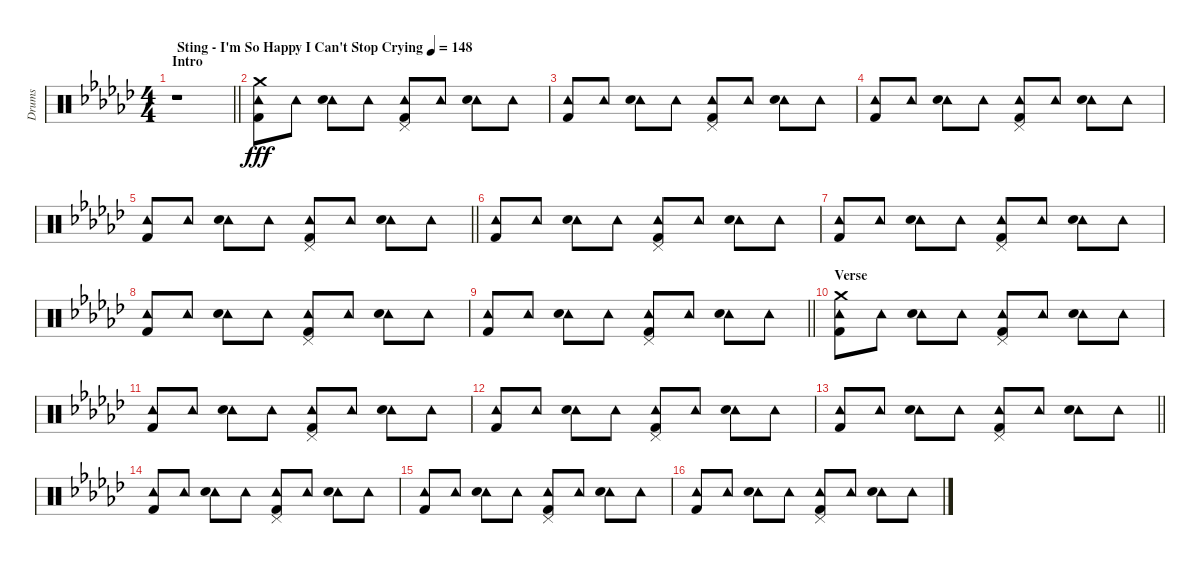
\track ("Drums" "Drums") {instrument percussion}
\staff {score}
\articulation defaults
\ts (4 4)
\section ("" "Intro")
\tempo (148 "Sting - I'm So Happy I Can't Stop Crying")
\clef neutral
\barLineRight lightlight
\ks gb
r.1{dy fff} |
("Crash medium (hit)" "Tambourine (hit)" "Kick (hit) 2").8 "Tambourine (hit)".8 ("Tambourine (hit)" "Electric Snare (hit)").8 "Tambourine (hit)".8 ("Pedal Hi-Hat (hit)" "Tambourine (hit)" "Kick (hit) 2").8 "Tambourine (hit)".8 ("Tambourine (hit)" "Electric Snare (hit)").8 "Tambourine (hit)".8 |
("Tambourine (hit)" "Kick (hit) 2").8 "Tambourine (hit)".8 ("Tambourine (hit)" "Electric Snare (hit)").8 "Tambourine (hit)".8 ("Pedal Hi-Hat (hit)" "Tambourine (hit)" "Kick (hit) 2").8 "Tambourine (hit)".8 ("Tambourine (hit)" "Electric Snare (hit)").8 "Tambourine (hit)".8 |
("Tambourine (hit)" "Kick (hit) 2").8 "Tambourine (hit)".8 ("Tambourine (hit)" "Electric Snare (hit)").8 "Tambourine (hit)".8 ("Pedal Hi-Hat (hit)" "Tambourine (hit)" "Kick (hit) 2").8 "Tambourine (hit)".8 ("Tambourine (hit)" "Electric Snare (hit)").8 "Tambourine (hit)".8 |
\barLineRight lightlight
("Tambourine (hit)" "Kick (hit) 2").8 "Tambourine (hit)".8 ("Tambourine (hit)" "Electric Snare (hit)").8 "Tambourine (hit)".8 ("Pedal Hi-Hat (hit)" "Tambourine (hit)" "Kick (hit) 2").8 "Tambourine (hit)".8 ("Tambourine (hit)" "Electric Snare (hit)").8 "Tambourine (hit)".8 |
("Tambourine (hit)" "Kick (hit) 2").8 "Tambourine (hit)".8 ("Tambourine (hit)" "Electric Snare (hit)").8 "Tambourine (hit)".8 ("Pedal Hi-Hat (hit)" "Tambourine (hit)" "Kick (hit) 2").8 "Tambourine (hit)".8 ("Tambourine (hit)" "Electric Snare (hit)").8 "Tambourine (hit)".8 |
("Tambourine (hit)" "Kick (hit) 2").8 "Tambourine (hit)".8 ("Tambourine (hit)" "Electric Snare (hit)").8 "Tambourine (hit)".8 ("Pedal Hi-Hat (hit)" "Tambourine (hit)" "Kick (hit) 2").8 "Tambourine (hit)".8 ("Tambourine (hit)" "Electric Snare (hit)").8 "Tambourine (hit)".8 |
("Tambourine (hit)" "Kick (hit) 2").8 "Tambourine (hit)".8 ("Tambourine (hit)" "Electric Snare (hit)").8 "Tambourine (hit)".8 ("Pedal Hi-Hat (hit)" "Tambourine (hit)" "Kick (hit) 2").8 "Tambourine (hit)".8 ("Tambourine (hit)" "Electric Snare (hit)").8 "Tambourine (hit)".8 |
\barLineRight lightlight
("Tambourine (hit)" "Kick (hit) 2").8 "Tambourine (hit)".8 ("Tambourine (hit)" "Electric Snare (hit)").8 "Tambourine (hit)".8 ("Pedal Hi-Hat (hit)" "Tambourine (hit)" "Kick (hit) 2").8 "Tambourine (hit)".8 ("Tambourine (hit)" "Electric Snare (hit)").8 "Tambourine (hit)".8 |
\section ("" "Verse")
("Crash medium (hit)" "Tambourine (hit)" "Kick (hit) 2").8 "Tambourine (hit)".8 ("Tambourine (hit)" "Electric Snare (hit)").8 "Tambourine (hit)".8 ("Pedal Hi-Hat (hit)" "Tambourine (hit)" "Kick (hit) 2").8 "Tambourine (hit)".8 ("Tambourine (hit)" "Electric Snare (hit)").8 "Tambourine (hit)".8 |
("Tambourine (hit)" "Kick (hit) 2").8 "Tambourine (hit)".8 ("Tambourine (hit)" "Electric Snare (hit)").8 "Tambourine (hit)".8 ("Pedal Hi-Hat (hit)" "Tambourine (hit)" "Kick (hit) 2").8 "Tambourine (hit)".8 ("Tambourine (hit)" "Electric Snare (hit)").8 "Tambourine (hit)".8 |
("Tambourine (hit)" "Kick (hit) 2").8 "Tambourine (hit)".8 ("Tambourine (hit)" "Electric Snare (hit)").8 "Tambourine (hit)".8 ("Pedal Hi-Hat (hit)" "Tambourine (hit)" "Kick (hit) 2").8 "Tambourine (hit)".8 ("Tambourine (hit)" "Electric Snare (hit)").8 "Tambourine (hit)".8 |
\barLineRight lightlight
("Tambourine (hit)" "Kick (hit) 2").8 "Tambourine (hit)".8 ("Tambourine (hit)" "Electric Snare (hit)").8 "Tambourine (hit)".8 ("Pedal Hi-Hat (hit)" "Tambourine (hit)" "Kick (hit) 2").8 "Tambourine (hit)".8 ("Tambourine (hit)" "Electric Snare (hit)").8 "Tambourine (hit)".8 |
("Tambourine (hit)" "Kick (hit) 2").8 "Tambourine (hit)".8 ("Tambourine (hit)" "Electric Snare (hit)").8 "Tambourine (hit)".8 ("Pedal Hi-Hat (hit)" "Tambourine (hit)" "Kick (hit) 2").8 "Tambourine (hit)".8 ("Tambourine (hit)" "Electric Snare (hit)").8 "Tambourine (hit)".8 |
("Tambourine (hit)" "Kick (hit) 2").8 "Tambourine (hit)".8 ("Tambourine (hit)" "Electric Snare (hit)").8 "Tambourine (hit)".8 ("Pedal Hi-Hat (hit)" "Tambourine (hit)" "Kick (hit) 2").8 "Tambourine (hit)".8 ("Tambourine (hit)" "Electric Snare (hit)").8 "Tambourine (hit)".8 |
("Tambourine (hit)" "Kick (hit) 2").8 "Tambourine (hit)".8 ("Tambourine (hit)" "Electric Snare (hit)").8 "Tambourine (hit)".8 ("Pedal Hi-Hat (hit)" "Tambourine (hit)" "Kick (hit) 2").8 "Tambourine (hit)".8 ("Tambourine (hit)" "Electric Snare (hit)").8 "Tambourine (hit)".8
